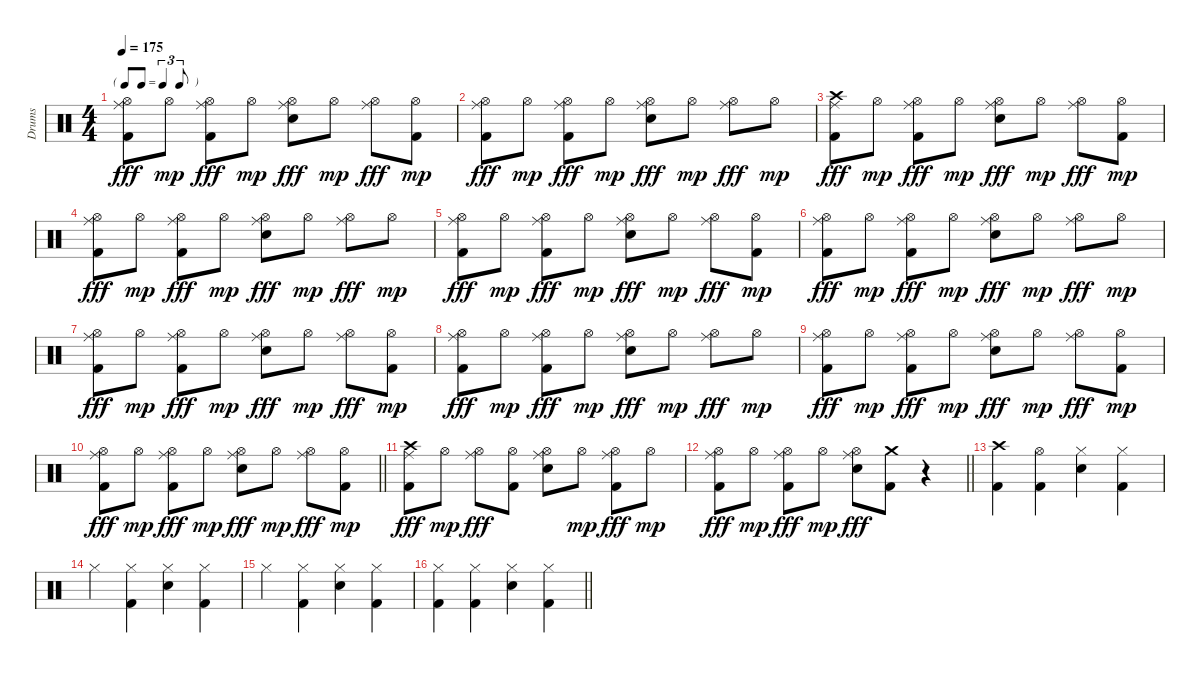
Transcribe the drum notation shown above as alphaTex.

\track ("Drums" "Drums") {instrument percussion}
\staff {score}
\articulation defaults
\ts (4 4)
\tf triplet8th
\tempo 175
\clef neutral
\ks c
("Hi-Hat (open)" "Ride (middle)" "Kick (hit) 2").8{dy fff} "Hi-Hat (open)".8{dy mp} ("Hi-Hat (open)" "Ride (middle)" "Kick (hit) 2").8{dy fff} "Hi-Hat (open)".8{dy mp} ("Hi-Hat (open)" "Ride (middle)" "Electric Snare (hit)").8{dy fff} "Hi-Hat (open)".8{dy mp} ("Hi-Hat (open)" "Ride (middle)").8{dy fff} ("Hi-Hat (open)" "Kick (hit) 2").8{dy mp} |
("Hi-Hat (open)" "Ride (middle)" "Kick (hit) 2").8{dy fff} "Hi-Hat (open)".8{dy mp} ("Hi-Hat (open)" "Ride (middle)" "Kick (hit) 2").8{dy fff} "Hi-Hat (open)".8{dy mp} ("Hi-Hat (open)" "Ride (middle)" "Electric Snare (hit)").8{dy fff} "Hi-Hat (open)".8{dy mp} ("Hi-Hat (open)" "Ride (middle)").8{dy fff} "Hi-Hat (open)".8{dy mp} |
("Crash high (hit)" "Ride (middle)" "Kick (hit) 2").8{dy fff} "Hi-Hat (open)".8{dy mp} ("Hi-Hat (open)" "Ride (middle)" "Kick (hit) 2").8{dy fff} "Hi-Hat (open)".8{dy mp} ("Hi-Hat (open)" "Ride (middle)" "Electric Snare (hit)").8{dy fff} "Hi-Hat (open)".8{dy mp} ("Hi-Hat (open)" "Ride (middle)").8{dy fff} ("Hi-Hat (open)" "Kick (hit) 2").8{dy mp} |
("Hi-Hat (open)" "Ride (middle)" "Kick (hit) 2").8{dy fff} "Hi-Hat (open)".8{dy mp} ("Hi-Hat (open)" "Ride (middle)" "Kick (hit) 2").8{dy fff} "Hi-Hat (open)".8{dy mp} ("Hi-Hat (open)" "Ride (middle)" "Electric Snare (hit)").8{dy fff} "Hi-Hat (open)".8{dy mp} ("Hi-Hat (open)" "Ride (middle)").8{dy fff} "Hi-Hat (open)".8{dy mp} |
("Hi-Hat (open)" "Ride (middle)" "Kick (hit) 2").8{dy fff} "Hi-Hat (open)".8{dy mp} ("Hi-Hat (open)" "Ride (middle)" "Kick (hit) 2").8{dy fff} "Hi-Hat (open)".8{dy mp} ("Hi-Hat (open)" "Ride (middle)" "Electric Snare (hit)").8{dy fff} "Hi-Hat (open)".8{dy mp} ("Hi-Hat (open)" "Ride (middle)").8{dy fff} ("Hi-Hat (open)" "Kick (hit) 2").8{dy mp} |
("Hi-Hat (open)" "Ride (middle)" "Kick (hit) 2").8{dy fff} "Hi-Hat (open)".8{dy mp} ("Hi-Hat (open)" "Ride (middle)" "Kick (hit) 2").8{dy fff} "Hi-Hat (open)".8{dy mp} ("Hi-Hat (open)" "Ride (middle)" "Electric Snare (hit)").8{dy fff} "Hi-Hat (open)".8{dy mp} ("Hi-Hat (open)" "Ride (middle)").8{dy fff} "Hi-Hat (open)".8{dy mp} |
("Hi-Hat (open)" "Ride (middle)" "Kick (hit) 2").8{dy fff} "Hi-Hat (open)".8{dy mp} ("Hi-Hat (open)" "Ride (middle)" "Kick (hit) 2").8{dy fff} "Hi-Hat (open)".8{dy mp} ("Hi-Hat (open)" "Ride (middle)" "Electric Snare (hit)").8{dy fff} "Hi-Hat (open)".8{dy mp} ("Hi-Hat (open)" "Ride (middle)").8{dy fff} ("Hi-Hat (open)" "Kick (hit) 2").8{dy mp} |
("Hi-Hat (open)" "Ride (middle)" "Kick (hit) 2").8{dy fff} "Hi-Hat (open)".8{dy mp} ("Hi-Hat (open)" "Ride (middle)" "Kick (hit) 2").8{dy fff} "Hi-Hat (open)".8{dy mp} ("Hi-Hat (open)" "Ride (middle)" "Electric Snare (hit)").8{dy fff} "Hi-Hat (open)".8{dy mp} ("Hi-Hat (open)" "Ride (middle)").8{dy fff} "Hi-Hat (open)".8{dy mp} |
("Hi-Hat (open)" "Ride (middle)" "Kick (hit) 2").8{dy fff} "Hi-Hat (open)".8{dy mp} ("Hi-Hat (open)" "Ride (middle)" "Kick (hit) 2").8{dy fff} "Hi-Hat (open)".8{dy mp} ("Hi-Hat (open)" "Ride (middle)" "Electric Snare (hit)").8{dy fff} "Hi-Hat (open)".8{dy mp} ("Hi-Hat (open)" "Ride (middle)").8{dy fff} ("Hi-Hat (open)" "Kick (hit) 2").8{dy mp} |
\barLineRight lightlight
("Hi-Hat (open)" "Ride (middle)" "Kick (hit) 2").8{dy fff} "Hi-Hat (open)".8{dy mp} ("Hi-Hat (open)" "Ride (middle)" "Kick (hit) 2").8{dy fff} "Hi-Hat (open)".8{dy mp} ("Hi-Hat (open)" "Ride (middle)" "Electric Snare (hit)").8{dy fff} "Hi-Hat (open)".8{dy mp} ("Hi-Hat (open)" "Ride (middle)").8{dy fff} ("Hi-Hat (open)" "Kick (hit) 2").8{dy mp} |
("Crash high (hit)" "Ride (middle)" "Kick (hit) 2").8{dy fff} "Hi-Hat (open)".8{dy mp} ("Hi-Hat (open)" "Ride (middle)").8{dy fff} ("Hi-Hat (open)" "Kick (hit) 2").8 ("Hi-Hat (open)" "Ride (middle)" "Electric Snare (hit)").8 "Hi-Hat (open)".8{dy mp} ("Hi-Hat (open)" "Ride (middle)" "Kick (hit) 2").8{dy fff} "Hi-Hat (open)".8{dy mp} |
\barLineRight lightlight
("Hi-Hat (open)" "Ride (middle)" "Kick (hit) 2").8{dy fff} "Hi-Hat (open)".8{dy mp} ("Hi-Hat (open)" "Ride (middle)" "Kick (hit) 2").8{dy fff} "Hi-Hat (open)".8{dy mp} ("Hi-Hat (open)" "Ride (middle)" "Electric Snare (hit)").8{dy fff} ("Crash medium (hit)" "Kick (hit) 2").8 r.4 |
("Crash high (hit)" "Kick (hit) 2").4 ("Hi-Hat (open)" "Kick (hit) 2").4 ("Hi-Hat (closed)" "Electric Snare (hit)").4 ("Hi-Hat (closed)" "Kick (hit) 2").4 |
"Hi-Hat (closed)".4 ("Hi-Hat (closed)" "Kick (hit) 2").4 ("Hi-Hat (closed)" "Electric Snare (hit)").4 ("Hi-Hat (closed)" "Kick (hit) 2").4 |
"Hi-Hat (closed)".4 ("Hi-Hat (closed)" "Kick (hit) 2").4 ("Hi-Hat (closed)" "Electric Snare (hit)").4 ("Hi-Hat (closed)" "Kick (hit) 2").4 |
\barLineRight lightlight
("Hi-Hat (closed)" "Kick (hit) 2").4 ("Hi-Hat (closed)" "Kick (hit) 2").4 ("Hi-Hat (closed)" "Electric Snare (hit)").4 ("Hi-Hat (closed)" "Kick (hit) 2").4
